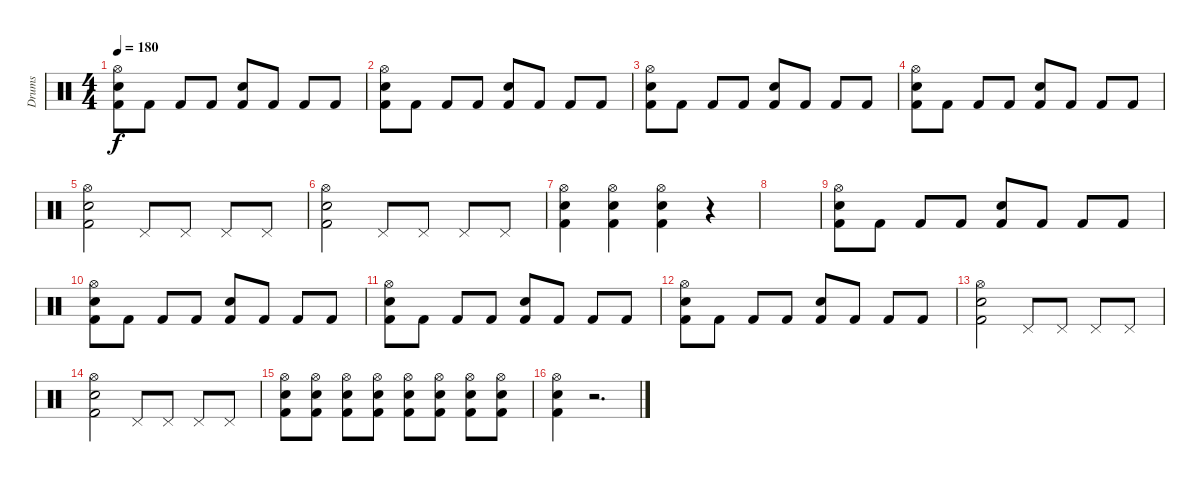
\track ("Drums" "Drums") {instrument percussion}
\staff {score}
\articulation defaults
\ts (4 4)
\tempo 180
\clef neutral
\ks c
("Kick (hit) 2" "Snare (hit) 2" "Hi-Hat (open)").8{dy f} "Kick (hit) 2".8 "Kick (hit) 2".8 "Kick (hit) 2".8 ("Kick (hit) 2" "Snare (hit) 2").8 "Kick (hit) 2".8 "Kick (hit) 2".8 "Kick (hit) 2".8 |
("Kick (hit) 2" "Snare (hit) 2" "Hi-Hat (open)").8 "Kick (hit) 2".8 "Kick (hit) 2".8 "Kick (hit) 2".8 ("Kick (hit) 2" "Snare (hit) 2").8 "Kick (hit) 2".8 "Kick (hit) 2".8 "Kick (hit) 2".8 |
("Kick (hit) 2" "Snare (hit) 2" "Hi-Hat (open)").8 "Kick (hit) 2".8 "Kick (hit) 2".8 "Kick (hit) 2".8 ("Kick (hit) 2" "Snare (hit) 2").8 "Kick (hit) 2".8 "Kick (hit) 2".8 "Kick (hit) 2".8 |
("Kick (hit) 2" "Snare (hit) 2" "Hi-Hat (open)").8 "Kick (hit) 2".8 "Kick (hit) 2".8 "Kick (hit) 2".8 ("Kick (hit) 2" "Snare (hit) 2").8 "Kick (hit) 2".8 "Kick (hit) 2".8 "Kick (hit) 2".8 |
("Kick (hit) 2" "Snare (hit) 2" "Hi-Hat (open)").2 "Pedal Hi-Hat (hit)".8 "Pedal Hi-Hat (hit)".8 "Pedal Hi-Hat (hit)".8 "Pedal Hi-Hat (hit)".8 |
("Kick (hit) 2" "Snare (hit) 2" "Hi-Hat (open)").2 "Pedal Hi-Hat (hit)".8 "Pedal Hi-Hat (hit)".8 "Pedal Hi-Hat (hit)".8 "Pedal Hi-Hat (hit)".8 |
("Kick (hit) 2" "Snare (hit) 2" "Hi-Hat (open)").4 ("Kick (hit) 2" "Snare (hit) 2" "Hi-Hat (open)").4 ("Kick (hit) 2" "Snare (hit) 2" "Hi-Hat (open)").4 r.4 |
|
("Kick (hit) 2" "Snare (hit) 2" "Hi-Hat (open)").8 "Kick (hit) 2".8 "Kick (hit) 2".8 "Kick (hit) 2".8 ("Kick (hit) 2" "Snare (hit) 2").8 "Kick (hit) 2".8 "Kick (hit) 2".8 "Kick (hit) 2".8 |
("Kick (hit) 2" "Snare (hit) 2" "Hi-Hat (open)").8 "Kick (hit) 2".8 "Kick (hit) 2".8 "Kick (hit) 2".8 ("Kick (hit) 2" "Snare (hit) 2").8 "Kick (hit) 2".8 "Kick (hit) 2".8 "Kick (hit) 2".8 |
("Kick (hit) 2" "Snare (hit) 2" "Hi-Hat (open)").8 "Kick (hit) 2".8 "Kick (hit) 2".8 "Kick (hit) 2".8 ("Kick (hit) 2" "Snare (hit) 2").8 "Kick (hit) 2".8 "Kick (hit) 2".8 "Kick (hit) 2".8 |
("Kick (hit) 2" "Snare (hit) 2" "Hi-Hat (open)").8 "Kick (hit) 2".8 "Kick (hit) 2".8 "Kick (hit) 2".8 ("Kick (hit) 2" "Snare (hit) 2").8 "Kick (hit) 2".8 "Kick (hit) 2".8 "Kick (hit) 2".8 |
("Kick (hit) 2" "Snare (hit) 2" "Hi-Hat (open)").2 "Pedal Hi-Hat (hit)".8 "Pedal Hi-Hat (hit)".8 "Pedal Hi-Hat (hit)".8 "Pedal Hi-Hat (hit)".8 |
("Kick (hit) 2" "Snare (hit) 2" "Hi-Hat (open)").2 "Pedal Hi-Hat (hit)".8 "Pedal Hi-Hat (hit)".8 "Pedal Hi-Hat (hit)".8 "Pedal Hi-Hat (hit)".8 |
("Kick (hit) 2" "Snare (hit) 2" "Hi-Hat (open)").8 ("Kick (hit) 2" "Snare (hit) 2" "Hi-Hat (open)").8 ("Kick (hit) 2" "Snare (hit) 2" "Hi-Hat (open)").8 ("Kick (hit) 2" "Snare (hit) 2" "Hi-Hat (open)").8 ("Kick (hit) 2" "Snare (hit) 2" "Hi-Hat (open)").8 ("Kick (hit) 2" "Snare (hit) 2" "Hi-Hat (open)").8 ("Kick (hit) 2" "Snare (hit) 2" "Hi-Hat (open)").8 ("Kick (hit) 2" "Snare (hit) 2" "Hi-Hat (open)").8 |
("Kick (hit) 2" "Snare (hit) 2" "Hi-Hat (open)").4 r.2{d}
